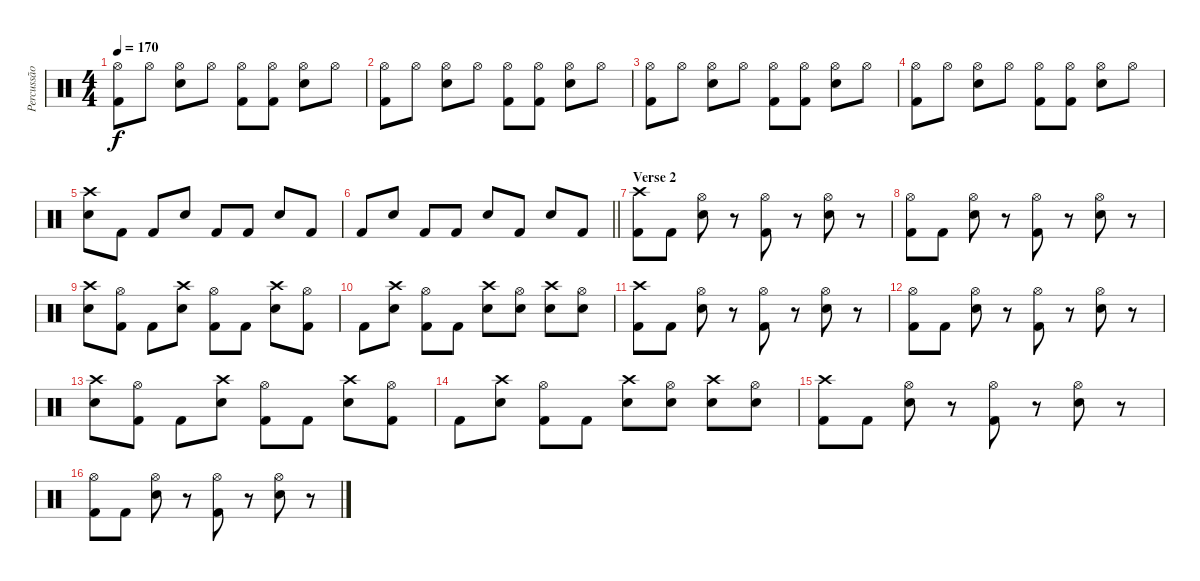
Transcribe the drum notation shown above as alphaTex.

\track ("Percussão" "Percussão") {instrument percussion}
\staff {score}
\articulation defaults
\ts (4 4)
\tempo 170
\clef neutral
\ks c
("Hi-Hat (open)" "Kick (hit) 2").8{dy f} "Hi-Hat (open)".8 ("Hi-Hat (open)" "Snare (hit) 2").8 "Hi-Hat (open)".8 ("Hi-Hat (open)" "Kick (hit) 2").8 ("Hi-Hat (open)" "Kick (hit) 2").8 ("Hi-Hat (open)" "Snare (hit) 2").8 "Hi-Hat (open)".8 |
("Hi-Hat (open)" "Kick (hit) 2").8 "Hi-Hat (open)".8 ("Hi-Hat (open)" "Snare (hit) 2").8 "Hi-Hat (open)".8 ("Hi-Hat (open)" "Kick (hit) 2").8 ("Hi-Hat (open)" "Kick (hit) 2").8 ("Hi-Hat (open)" "Snare (hit) 2").8 "Hi-Hat (open)".8 |
("Hi-Hat (open)" "Kick (hit) 2").8 "Hi-Hat (open)".8 ("Hi-Hat (open)" "Snare (hit) 2").8 "Hi-Hat (open)".8 ("Hi-Hat (open)" "Kick (hit) 2").8 ("Hi-Hat (open)" "Kick (hit) 2").8 ("Hi-Hat (open)" "Snare (hit) 2").8 "Hi-Hat (open)".8 |
("Hi-Hat (open)" "Kick (hit) 2").8 "Hi-Hat (open)".8 ("Hi-Hat (open)" "Snare (hit) 2").8 "Hi-Hat (open)".8 ("Hi-Hat (open)" "Kick (hit) 2").8 ("Hi-Hat (open)" "Kick (hit) 2").8 ("Hi-Hat (open)" "Snare (hit) 2").8 "Hi-Hat (open)".8 |
("Crash high (hit)" "Snare (hit) 2").8 "Kick (hit) 2".8 "Kick (hit) 2".8 "Snare (hit) 2".8 "Kick (hit) 2".8 "Kick (hit) 2".8 "Snare (hit) 2".8 "Kick (hit) 2".8 |
\barLineRight lightlight "Kick (hit) 2".8 "Snare (hit) 2".8 "Kick (hit) 2".8 "Kick (hit) 2".8 "Snare (hit) 2".8 "Kick (hit) 2".8 "Snare (hit) 2".8 "Kick (hit) 2".8
|
\section ("" "Verse 2")
("Crash high (hit)" "Kick (hit) 2").8 "Kick (hit) 2".8 ("Hi-Hat (open)" "Snare (hit) 2").8 r.8 ("Hi-Hat (open)" "Kick (hit) 2").8 r.8 ("Hi-Hat (open)" "Snare (hit) 2").8 r.8 |
("Hi-Hat (open)" "Kick (hit) 2").8 "Kick (hit) 2".8 ("Hi-Hat (open)" "Snare (hit) 2").8 r.8 ("Hi-Hat (open)" "Kick (hit) 2").8 r.8 ("Hi-Hat (open)" "Snare (hit) 2").8 r.8 |
("Crash high (hit)" "Snare (hit) 2").8 ("Hi-Hat (open)" "Kick (hit) 2").8 "Kick (hit) 2".8 ("Crash high (hit)" "Snare (hit) 2").8 ("Hi-Hat (open)" "Kick (hit) 2").8 "Kick (hit) 2".8 ("Crash high (hit)" "Snare (hit) 2").8 ("Hi-Hat (open)" "Kick (hit) 2").8 |
"Kick (hit) 2".8 ("Crash high (hit)" "Snare (hit) 2").8 ("Hi-Hat (open)" "Kick (hit) 2").8 "Kick (hit) 2".8 ("Crash high (hit)" "Snare (hit) 2").8 ("Hi-Hat (open)" "Snare (hit) 2").8 ("Crash high (hit)" "Snare (hit) 2").8 ("Hi-Hat (open)" "Snare (hit) 2").8 |
("Crash high (hit)" "Kick (hit) 2").8 "Kick (hit) 2".8 ("Hi-Hat (open)" "Snare (hit) 2").8 r.8 ("Hi-Hat (open)" "Kick (hit) 2").8 r.8 ("Hi-Hat (open)" "Snare (hit) 2").8 r.8 |
("Hi-Hat (open)" "Kick (hit) 2").8 "Kick (hit) 2".8 ("Hi-Hat (open)" "Snare (hit) 2").8 r.8 ("Hi-Hat (open)" "Kick (hit) 2").8 r.8 ("Hi-Hat (open)" "Snare (hit) 2").8 r.8 |
("Crash high (hit)" "Snare (hit) 2").8 ("Hi-Hat (open)" "Kick (hit) 2").8 "Kick (hit) 2".8 ("Crash high (hit)" "Snare (hit) 2").8 ("Hi-Hat (open)" "Kick (hit) 2").8 "Kick (hit) 2".8 ("Crash high (hit)" "Snare (hit) 2").8 ("Hi-Hat (open)" "Kick (hit) 2").8 |
"Kick (hit) 2".8 ("Crash high (hit)" "Snare (hit) 2").8 ("Hi-Hat (open)" "Kick (hit) 2").8 "Kick (hit) 2".8 ("Crash high (hit)" "Snare (hit) 2").8 ("Hi-Hat (open)" "Snare (hit) 2").8 ("Crash high (hit)" "Snare (hit) 2").8 ("Hi-Hat (open)" "Snare (hit) 2").8 |
("Crash high (hit)" "Kick (hit) 2").8 "Kick (hit) 2".8 ("Hi-Hat (open)" "Snare (hit) 2").8 r.8 ("Hi-Hat (open)" "Kick (hit) 2").8 r.8 ("Hi-Hat (open)" "Snare (hit) 2").8 r.8 |
("Hi-Hat (open)" "Kick (hit) 2").8 "Kick (hit) 2".8 ("Hi-Hat (open)" "Snare (hit) 2").8 r.8 ("Hi-Hat (open)" "Kick (hit) 2").8 r.8 ("Hi-Hat (open)" "Snare (hit) 2").8 r.8
